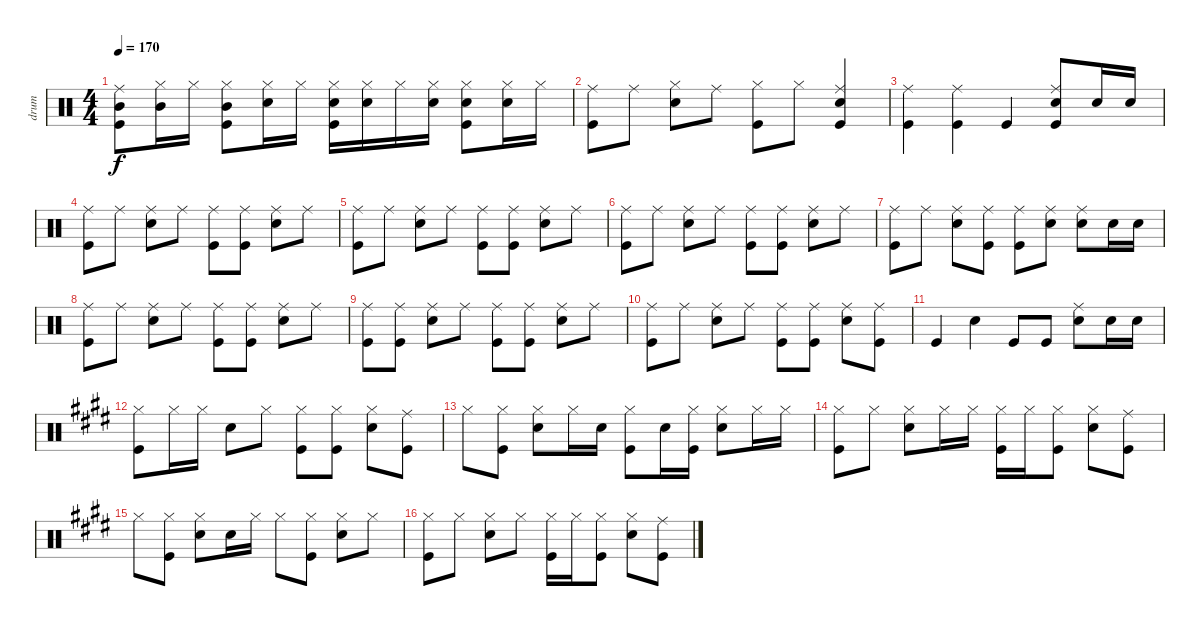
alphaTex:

\track ("drum" "drum") {instrument percussion}
\staff {score}
\articulation defaults
\ts (4 4)
\tempo 170
\clef neutral
\ks c
("Mid Tom (hit)" "Kick (hit)" "Ride (middle)").8{dy f} ("Hi-Hat (closed)" "Mid Tom (hit)").16 "Hi-Hat (closed)".16 ("Hi-Hat (closed)" "Kick (hit)" "Mid Tom (hit)").8 ("Hi-Hat (closed)" "Snare (hit) 2").16 "Hi-Hat (closed)".16 ("Hi-Hat (closed)" "Snare (hit) 2" "Kick (hit)").16 ("Hi-Hat (closed)" "Snare (hit) 2").16 "Hi-Hat (closed)".16 ("Hi-Hat (closed)" "Snare (hit) 2").16 ("Hi-Hat (closed)" "Kick (hit)" "Snare (hit) 2").8 ("Hi-Hat (closed)" "Snare (hit) 2").16 "Hi-Hat (closed)".16 |
("Ride (middle)" "Kick (hit)").8 "Ride (middle)".8 ("Hi-Hat (closed)" "Snare (hit) 2").8 "Ride (middle)".8 ("Kick (hit)" "Hi-Hat (closed)").8 "Hi-Hat (closed)".8 ("Snare (hit) 2" "Kick (hit)" "Ride (middle)").4 |
("Ride (middle)" "Kick (hit)").4 ("Ride (middle)" "Kick (hit)").4 "Kick (hit)".4 ("Kick (hit)" "Snare (hit) 2" "Ride (middle)").8 "Snare (hit) 2".16 "Snare (hit) 2".16 |
("Ride (middle)" "Kick (hit)").8 "Ride (middle)".8 ("Ride (middle)" "Snare (hit) 2").8 "Ride (middle)".8 ("Ride (middle)" "Kick (hit)").8 ("Ride (middle)" "Kick (hit)").8 ("Ride (middle)" "Snare (hit) 2").8 "Ride (middle)".8 |
("Ride (middle)" "Kick (hit)").8 "Ride (middle)".8 ("Ride (middle)" "Snare (hit) 2").8 "Ride (middle)".8 ("Ride (middle)" "Kick (hit)").8 ("Ride (middle)" "Kick (hit)").8 ("Ride (middle)" "Snare (hit) 2").8 "Ride (middle)".8 |
("Ride (middle)" "Kick (hit)").8 "Ride (middle)".8 ("Ride (middle)" "Snare (hit) 2").8 "Ride (middle)".8 ("Ride (middle)" "Kick (hit)").8 ("Ride (middle)" "Kick (hit)").8 ("Ride (middle)" "Snare (hit) 2").8 "Ride (middle)".8 |
("Ride (middle)" "Kick (hit)").8 "Ride (middle)".8 ("Ride (middle)" "Snare (hit) 2").8 ("Ride (middle)" "Kick (hit)").8 ("Ride (middle)" "Kick (hit)").8 ("Ride (middle)" "Snare (hit) 2").8 ("Ride (middle)" "Snare (hit) 2").8 "Snare (hit) 2".16 "Snare (hit) 2".16 |
("Ride (middle)" "Kick (hit)").8 "Ride (middle)".8 ("Ride (middle)" "Snare (hit) 2").8 "Ride (middle)".8 ("Ride (middle)" "Kick (hit)").8 ("Ride (middle)" "Kick (hit)").8 ("Ride (middle)" "Snare (hit) 2").8 "Ride (middle)".8 |
("Ride (middle)" "Kick (hit)").8 ("Ride (middle)" "Kick (hit)").8 ("Ride (middle)" "Snare (hit) 2").8 "Ride (middle)".8 ("Ride (middle)" "Kick (hit)").8 ("Ride (middle)" "Kick (hit)").8 ("Ride (middle)" "Snare (hit) 2").8 "Ride (middle)".8 |
("Ride (middle)" "Kick (hit)").8 "Ride (middle)".8 ("Ride (middle)" "Snare (hit) 2").8 "Ride (middle)".8 ("Ride (middle)" "Kick (hit)").8 ("Ride (middle)" "Kick (hit)").8 ("Ride (middle)" "Snare (hit) 2").8 ("Ride (middle)" "Kick (hit)").8 |
"Kick (hit)".4 "Snare (hit) 2".4 "Kick (hit)".8 "Kick (hit)".8 ("Ride (middle)" "Snare (hit) 2").8 "Snare (hit) 2".16 "Snare (hit) 2".16 |
\ks e
("Hi-Hat (closed)" "Kick (hit)").8 "Hi-Hat (closed)".16 "Hi-Hat (closed)".16 "Snare (hit) 2".8 "Hi-Hat (closed)".8 ("Kick (hit)" "Hi-Hat (closed)").8 ("Kick (hit)" "Hi-Hat (closed)").8 ("Hi-Hat (closed)" "Snare (hit) 2").8 ("Ride (middle)" "Kick (hit)").8 |
"Hi-Hat (closed)".8 ("Hi-Hat (closed)" "Kick (hit)").8 ("Hi-Hat (closed)" "Snare (hit) 2").8 "Hi-Hat (closed)".16 "Snare (hit) 2".16 ("Kick (hit)" "Hi-Hat (closed)").8 "Snare (hit) 2".16 ("Hi-Hat (closed)" "Kick (hit)").16 ("Snare (hit) 2" "Hi-Hat (closed)").8 "Hi-Hat (closed)".16 "Hi-Hat (closed)".16 |
("Kick (hit)" "Hi-Hat (closed)").8 "Hi-Hat (closed)".8 ("Hi-Hat (closed)" "Snare (hit) 2").8 "Hi-Hat (closed)".16 "Hi-Hat (closed)".16 ("Hi-Hat (closed)" "Kick (hit)").16 "Hi-Hat (closed)".16 ("Kick (hit)" "Hi-Hat (closed)").8 ("Hi-Hat (closed)" "Snare (hit) 2").8 ("Kick (hit)" "Ride (middle)").8 |
"Hi-Hat (closed)".8 ("Kick (hit)" "Hi-Hat (closed)").8 ("Hi-Hat (closed)" "Snare (hit) 2").8 "Snare (hit) 2".16 "Hi-Hat (closed)".16 "Hi-Hat (closed)".8 ("Hi-Hat (closed)" "Kick (hit)").8 ("Hi-Hat (closed)" "Snare (hit) 2").8 "Hi-Hat (closed)".8 |
("Hi-Hat (closed)" "Kick (hit)").8 "Hi-Hat (closed)".8 ("Hi-Hat (closed)" "Snare (hit) 2").8 "Hi-Hat (closed)".8 ("Hi-Hat (closed)" "Kick (hit)").16 "Hi-Hat (closed)".16 ("Hi-Hat (closed)" "Kick (hit)").8 ("Hi-Hat (closed)" "Snare (hit) 2").8 ("Kick (hit)" "Ride (middle)").8
